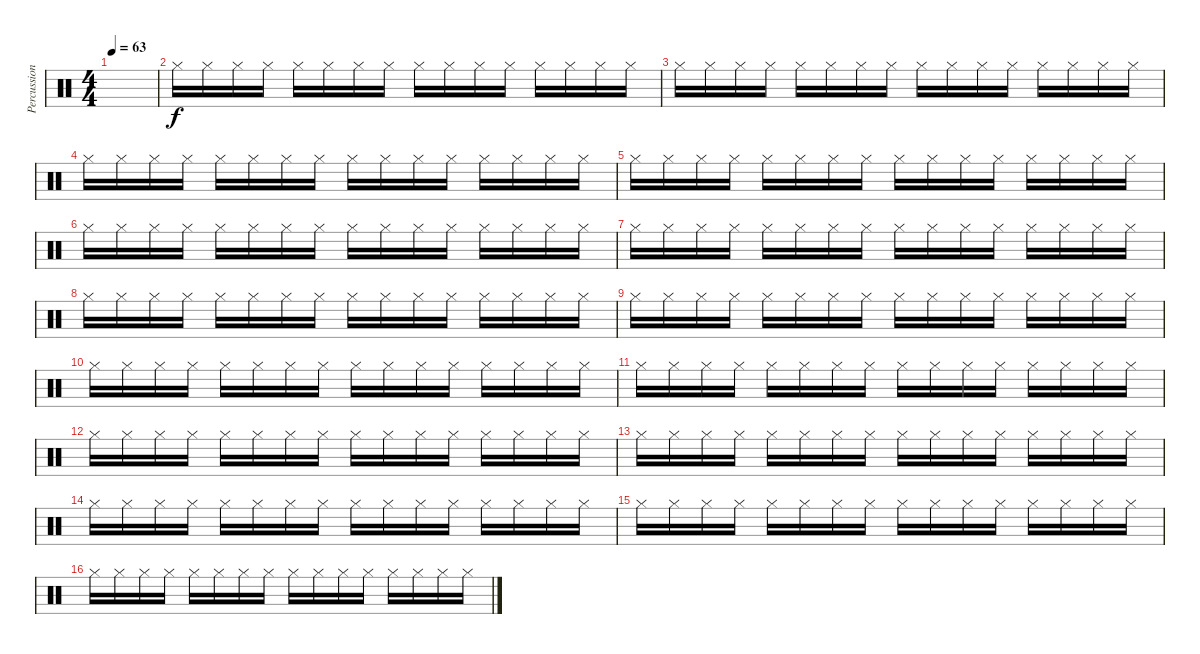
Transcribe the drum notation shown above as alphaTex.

\track ("Percussion" "Percussion") {instrument percussion}
\staff {score}
\articulation defaults
\ts (4 4)
\tempo 63
\clef neutral
\ks c
|
"Hi-Hat (closed)".16 "Hi-Hat (closed)".16 "Hi-Hat (closed)".16 "Hi-Hat (closed)".16 "Hi-Hat (closed)".16 "Hi-Hat (closed)".16 "Hi-Hat (closed)".16 "Hi-Hat (closed)".16 "Hi-Hat (closed)".16 "Hi-Hat (closed)".16 "Hi-Hat (closed)".16 "Hi-Hat (closed)".16 "Hi-Hat (closed)".16 "Hi-Hat (closed)".16 "Hi-Hat (closed)".16 "Hi-Hat (closed)".16 |
"Hi-Hat (closed)".16 "Hi-Hat (closed)".16 "Hi-Hat (closed)".16 "Hi-Hat (closed)".16 "Hi-Hat (closed)".16 "Hi-Hat (closed)".16 "Hi-Hat (closed)".16 "Hi-Hat (closed)".16 "Hi-Hat (closed)".16 "Hi-Hat (closed)".16 "Hi-Hat (closed)".16 "Hi-Hat (closed)".16 "Hi-Hat (closed)".16 "Hi-Hat (closed)".16 "Hi-Hat (closed)".16 "Hi-Hat (closed)".16 |
"Hi-Hat (closed)".16 "Hi-Hat (closed)".16 "Hi-Hat (closed)".16 "Hi-Hat (closed)".16 "Hi-Hat (closed)".16 "Hi-Hat (closed)".16 "Hi-Hat (closed)".16 "Hi-Hat (closed)".16 "Hi-Hat (closed)".16 "Hi-Hat (closed)".16 "Hi-Hat (closed)".16 "Hi-Hat (closed)".16 "Hi-Hat (closed)".16 "Hi-Hat (closed)".16 "Hi-Hat (closed)".16 "Hi-Hat (closed)".16 |
"Hi-Hat (closed)".16 "Hi-Hat (closed)".16 "Hi-Hat (closed)".16 "Hi-Hat (closed)".16 "Hi-Hat (closed)".16 "Hi-Hat (closed)".16 "Hi-Hat (closed)".16 "Hi-Hat (closed)".16 "Hi-Hat (closed)".16 "Hi-Hat (closed)".16 "Hi-Hat (closed)".16 "Hi-Hat (closed)".16 "Hi-Hat (closed)".16 "Hi-Hat (closed)".16 "Hi-Hat (closed)".16 "Hi-Hat (closed)".16 |
"Hi-Hat (closed)".16 "Hi-Hat (closed)".16 "Hi-Hat (closed)".16 "Hi-Hat (closed)".16 "Hi-Hat (closed)".16 "Hi-Hat (closed)".16 "Hi-Hat (closed)".16 "Hi-Hat (closed)".16 "Hi-Hat (closed)".16 "Hi-Hat (closed)".16 "Hi-Hat (closed)".16 "Hi-Hat (closed)".16 "Hi-Hat (closed)".16 "Hi-Hat (closed)".16 "Hi-Hat (closed)".16 "Hi-Hat (closed)".16 |
"Hi-Hat (closed)".16 "Hi-Hat (closed)".16 "Hi-Hat (closed)".16 "Hi-Hat (closed)".16 "Hi-Hat (closed)".16 "Hi-Hat (closed)".16 "Hi-Hat (closed)".16 "Hi-Hat (closed)".16 "Hi-Hat (closed)".16 "Hi-Hat (closed)".16 "Hi-Hat (closed)".16 "Hi-Hat (closed)".16 "Hi-Hat (closed)".16 "Hi-Hat (closed)".16 "Hi-Hat (closed)".16 "Hi-Hat (closed)".16 |
"Hi-Hat (closed)".16 "Hi-Hat (closed)".16 "Hi-Hat (closed)".16 "Hi-Hat (closed)".16 "Hi-Hat (closed)".16 "Hi-Hat (closed)".16 "Hi-Hat (closed)".16 "Hi-Hat (closed)".16 "Hi-Hat (closed)".16 "Hi-Hat (closed)".16 "Hi-Hat (closed)".16 "Hi-Hat (closed)".16 "Hi-Hat (closed)".16 "Hi-Hat (closed)".16 "Hi-Hat (closed)".16 "Hi-Hat (closed)".16 |
"Hi-Hat (closed)".16 "Hi-Hat (closed)".16 "Hi-Hat (closed)".16 "Hi-Hat (closed)".16 "Hi-Hat (closed)".16 "Hi-Hat (closed)".16 "Hi-Hat (closed)".16 "Hi-Hat (closed)".16 "Hi-Hat (closed)".16 "Hi-Hat (closed)".16 "Hi-Hat (closed)".16 "Hi-Hat (closed)".16 "Hi-Hat (closed)".16 "Hi-Hat (closed)".16 "Hi-Hat (closed)".16 "Hi-Hat (closed)".16 |
"Hi-Hat (closed)".16 "Hi-Hat (closed)".16 "Hi-Hat (closed)".16 "Hi-Hat (closed)".16 "Hi-Hat (closed)".16 "Hi-Hat (closed)".16 "Hi-Hat (closed)".16 "Hi-Hat (closed)".16 "Hi-Hat (closed)".16 "Hi-Hat (closed)".16 "Hi-Hat (closed)".16 "Hi-Hat (closed)".16 "Hi-Hat (closed)".16 "Hi-Hat (closed)".16 "Hi-Hat (closed)".16 "Hi-Hat (closed)".16 |
"Hi-Hat (closed)".16 "Hi-Hat (closed)".16 "Hi-Hat (closed)".16 "Hi-Hat (closed)".16 "Hi-Hat (closed)".16 "Hi-Hat (closed)".16 "Hi-Hat (closed)".16 "Hi-Hat (closed)".16 "Hi-Hat (closed)".16 "Hi-Hat (closed)".16 "Hi-Hat (closed)".16 "Hi-Hat (closed)".16 "Hi-Hat (closed)".16 "Hi-Hat (closed)".16 "Hi-Hat (closed)".16 "Hi-Hat (closed)".16 |
"Hi-Hat (closed)".16 "Hi-Hat (closed)".16 "Hi-Hat (closed)".16 "Hi-Hat (closed)".16 "Hi-Hat (closed)".16 "Hi-Hat (closed)".16 "Hi-Hat (closed)".16 "Hi-Hat (closed)".16 "Hi-Hat (closed)".16 "Hi-Hat (closed)".16 "Hi-Hat (closed)".16 "Hi-Hat (closed)".16 "Hi-Hat (closed)".16 "Hi-Hat (closed)".16 "Hi-Hat (closed)".16 "Hi-Hat (closed)".16 |
"Hi-Hat (closed)".16 "Hi-Hat (closed)".16 "Hi-Hat (closed)".16 "Hi-Hat (closed)".16 "Hi-Hat (closed)".16 "Hi-Hat (closed)".16 "Hi-Hat (closed)".16 "Hi-Hat (closed)".16 "Hi-Hat (closed)".16 "Hi-Hat (closed)".16 "Hi-Hat (closed)".16 "Hi-Hat (closed)".16 "Hi-Hat (closed)".16 "Hi-Hat (closed)".16 "Hi-Hat (closed)".16 "Hi-Hat (closed)".16 |
"Hi-Hat (closed)".16 "Hi-Hat (closed)".16 "Hi-Hat (closed)".16 "Hi-Hat (closed)".16 "Hi-Hat (closed)".16 "Hi-Hat (closed)".16 "Hi-Hat (closed)".16 "Hi-Hat (closed)".16 "Hi-Hat (closed)".16 "Hi-Hat (closed)".16 "Hi-Hat (closed)".16 "Hi-Hat (closed)".16 "Hi-Hat (closed)".16 "Hi-Hat (closed)".16 "Hi-Hat (closed)".16 "Hi-Hat (closed)".16 |
"Hi-Hat (closed)".16 "Hi-Hat (closed)".16 "Hi-Hat (closed)".16 "Hi-Hat (closed)".16 "Hi-Hat (closed)".16 "Hi-Hat (closed)".16 "Hi-Hat (closed)".16 "Hi-Hat (closed)".16 "Hi-Hat (closed)".16 "Hi-Hat (closed)".16 "Hi-Hat (closed)".16 "Hi-Hat (closed)".16 "Hi-Hat (closed)".16 "Hi-Hat (closed)".16 "Hi-Hat (closed)".16 "Hi-Hat (closed)".16 |
"Hi-Hat (closed)".16 "Hi-Hat (closed)".16 "Hi-Hat (closed)".16 "Hi-Hat (closed)".16 "Hi-Hat (closed)".16 "Hi-Hat (closed)".16 "Hi-Hat (closed)".16 "Hi-Hat (closed)".16 "Hi-Hat (closed)".16 "Hi-Hat (closed)".16 "Hi-Hat (closed)".16 "Hi-Hat (closed)".16 "Hi-Hat (closed)".16 "Hi-Hat (closed)".16 "Hi-Hat (closed)".16 "Hi-Hat (closed)".16
